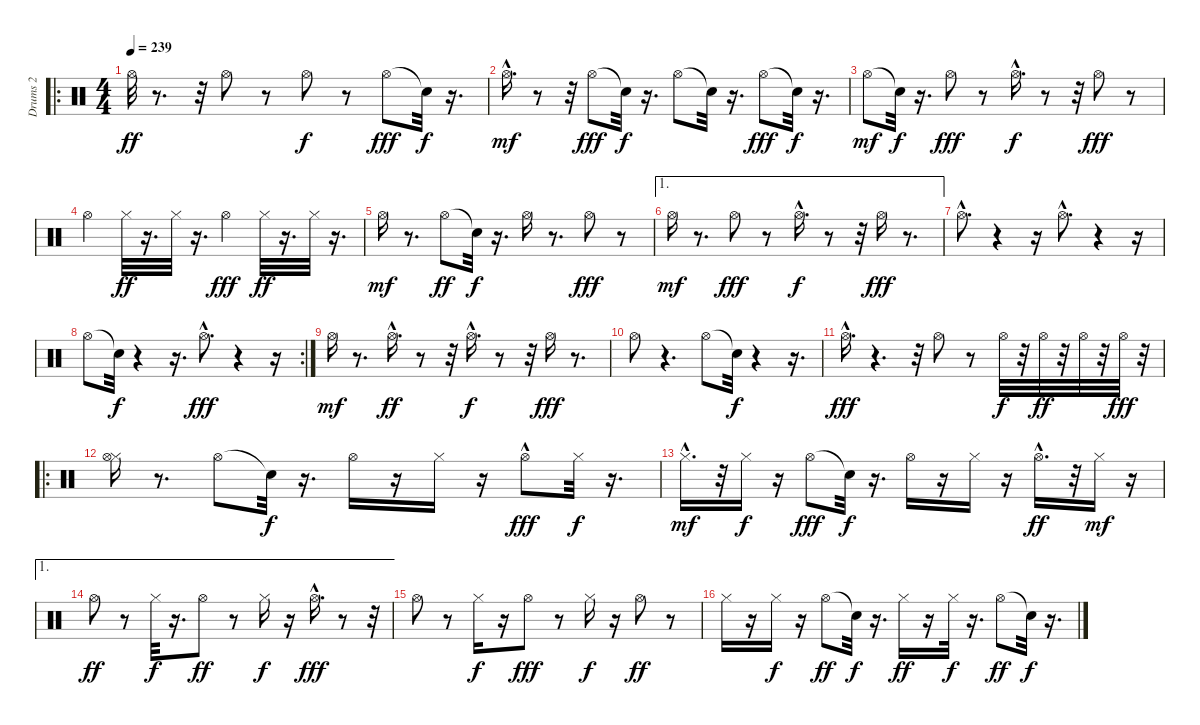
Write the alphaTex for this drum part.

\track ("Drums 2" "Drums 2") {instrument percussion}
\staff {score}
\articulation defaults
\ro
\ts (4 4)
\tempo 239
\clef neutral
\ks c "Hi-Hat (open)".32{dy ff}
r.8{d} r.32 "Hi-Hat (open)".8 r.8 "Hi-Hat (open)".8{dy f} r.8 "Hi-Hat (open)".8{dy fff} "Snare (hit)"{t}.32{dy f} r.16{d} |
"Hi-Hat (open)"{hac}.16{d dy mf} r.8 r.32 "Hi-Hat (open)".8{dy fff} "Snare (hit)"{t}.32{dy f} r.16{d} "Hi-Hat (open)".8 "Snare (hit)"{t}.32 r.16{d} "Hi-Hat (open)".8{dy fff} "Snare (hit)"{t}.32{dy f} r.16{d} |
"Hi-Hat (open)".8{dy mf} "Snare (hit)"{t}.32{dy f} r.16{d} "Hi-Hat (open)".8{dy fff} r.8 "Hi-Hat (open)"{hac}.16{d dy f} r.8 r.32 "Hi-Hat (open)".8{dy fff} r.8 |
"Hi-Hat (open)".4 "Hi-Hat (closed)".32{dy ff} r.16{d} "Hi-Hat (closed)".32 r.16{d} "Hi-Hat (open)".4{dy fff} "Hi-Hat (closed)".32{dy ff} r.16{d} "Hi-Hat (closed)".32 r.16{d} |
"Hi-Hat (open)".16{dy mf} r.8{d} "Hi-Hat (open)".8{dy ff} "Snare (hit)"{t}.32{dy f} r.16{d} "Hi-Hat (open)".16 r.8{d} "Hi-Hat (open)".8{dy fff} r.8 |
\ae 1 "Hi-Hat (open)".16{dy mf}
r.8{d} "Hi-Hat (open)".8{dy fff} r.8 "Hi-Hat (open)"{hac}.16{d dy f} r.8 r.32 "Hi-Hat (open)".16{dy fff} r.8{d} |
"Hi-Hat (open)"{hac}.8{d} r.4 r.16 "Hi-Hat (open)"{hac}.8{d} r.4 r.16 |
\rc 2 "Hi-Hat (open)".8 "Snare (hit)"{t}.32{dy f}
r.4 r.16{d} "Hi-Hat (open)"{hac}.8{d dy fff} r.4 r.16 |
"Hi-Hat (open)".16{dy mf} r.8{d} "Hi-Hat (open)"{hac}.16{d dy ff} r.8 r.32 "Hi-Hat (open)"{hac}.16{d dy f} r.8 r.32 "Hi-Hat (open)".16{dy fff} r.8{d} |
"Hi-Hat (open)".8 r.4{d} "Hi-Hat (open)".8 "Snare (hit)"{t}.32{dy f} r.4 r.16{d} |
"Hi-Hat (open)"{hac}.16{d dy fff} r.4{d} r.32 "Hi-Hat (open)".8 r.8 "Hi-Hat (open)".32{dy f} r.32 "Hi-Hat (open)".32{dy ff} r.32 "Hi-Hat (open)".32 r.32 "Hi-Hat (open)".32{dy fff} r.32 |
\ro
("Hi-Hat (closed)" "Hi-Hat (open)").16 r.8{d} "Hi-Hat (open)".8 "Snare (hit)"{t}.32{dy f} r.16{d} "Hi-Hat (open)".16 r.16 "Hi-Hat (closed)".16 r.16 "Hi-Hat (open)"{hac}.8{dy fff} "Hi-Hat (closed)".32{dy f} r.16{d} |
"Hi-Hat (closed)"{hac}.16{d dy mf} r.32 "Hi-Hat (closed)".16{dy f} r.16 "Hi-Hat (open)".8{dy fff} "Snare (hit)"{t}.32{dy f} r.16{d} "Hi-Hat (open)".16 r.16 "Hi-Hat (closed)".16 r.16 "Hi-Hat (open)"{hac}.16{d dy ff} r.32 "Hi-Hat (closed)".16{dy mf} r.16 |
\ae 1 "Hi-Hat (open)".8{dy ff}
r.8 "Hi-Hat (closed)".32{dy f} r.16{d} "Hi-Hat (open)".8{dy ff} r.8 "Hi-Hat (closed)".16{dy f} r.16 "Hi-Hat (open)"{hac}.16{d dy fff} r.8 r.32 |
"Hi-Hat (open)".8 r.8 "Hi-Hat (closed)".16{dy f} r.16 "Hi-Hat (open)".8{dy fff} r.8 "Hi-Hat (closed)".16{dy f} r.16 "Hi-Hat (open)".8{dy ff} r.8 |
"Hi-Hat (closed)".16 r.16 "Hi-Hat (closed)".16{dy f} r.16 "Hi-Hat (open)".8{dy ff} "Snare (hit)"{t}.32{dy f} r.16{d} "Hi-Hat (closed)".16{dy ff} r.16 "Hi-Hat (closed)".32{dy f} r.16{d} "Hi-Hat (open)".8{dy ff} "Snare (hit)"{t}.32{dy f} r.16{d}
